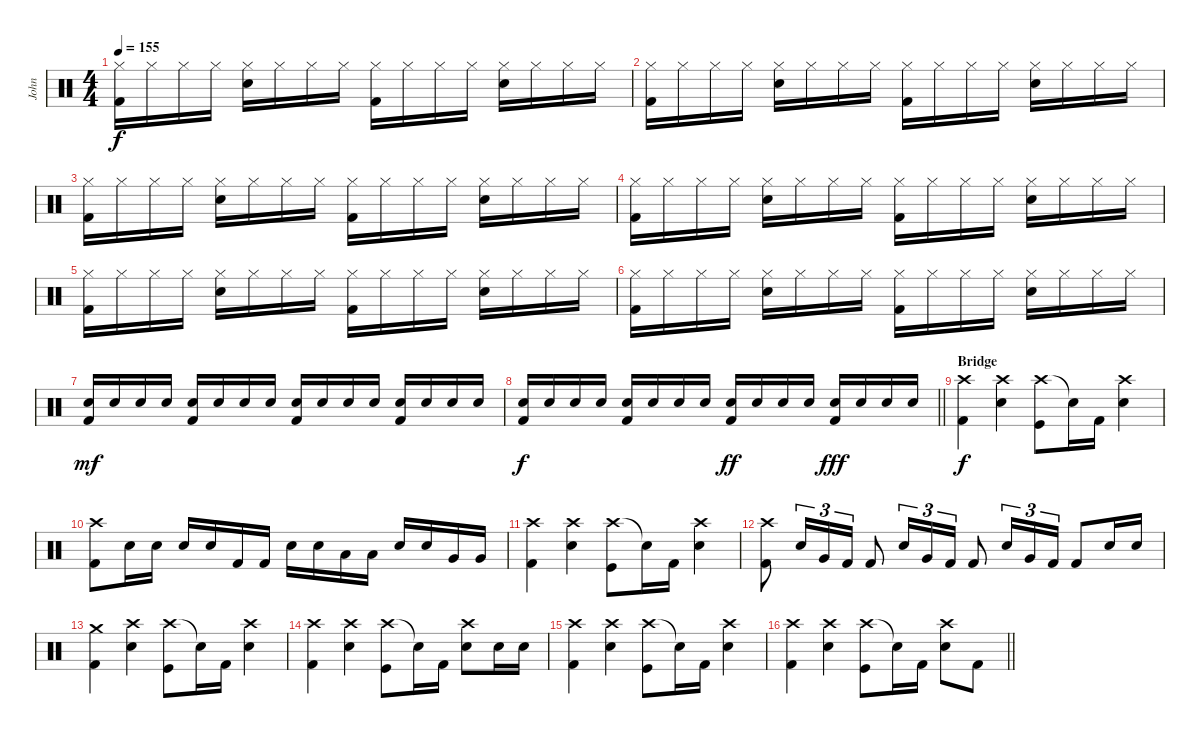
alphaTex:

\track ("John" "John") {instrument percussion}
\staff {score}
\articulation defaults
\ts (4 4)
\tempo 155
\clef neutral
\ks c
("Hi-Hat (closed)" "Kick (hit) 2").16{dy f} "Hi-Hat (closed)".16 "Hi-Hat (closed)".16 "Hi-Hat (closed)".16 ("Hi-Hat (closed)" "Snare (hit) 2").16 "Hi-Hat (closed)".16 "Hi-Hat (closed)".16 "Hi-Hat (closed)".16 ("Hi-Hat (closed)" "Kick (hit) 2").16 "Hi-Hat (closed)".16 "Hi-Hat (closed)".16 "Hi-Hat (closed)".16 ("Hi-Hat (closed)" "Snare (hit) 2").16 "Hi-Hat (closed)".16 "Hi-Hat (closed)".16 "Hi-Hat (closed)".16 |
("Hi-Hat (closed)" "Kick (hit) 2").16 "Hi-Hat (closed)".16 "Hi-Hat (closed)".16 "Hi-Hat (closed)".16 ("Hi-Hat (closed)" "Snare (hit) 2").16 "Hi-Hat (closed)".16 "Hi-Hat (closed)".16 "Hi-Hat (closed)".16 ("Hi-Hat (closed)" "Kick (hit) 2").16 "Hi-Hat (closed)".16 "Hi-Hat (closed)".16 "Hi-Hat (closed)".16 ("Hi-Hat (closed)" "Snare (hit) 2").16 "Hi-Hat (closed)".16 "Hi-Hat (closed)".16 "Hi-Hat (closed)".16 |
("Hi-Hat (closed)" "Kick (hit) 2").16 "Hi-Hat (closed)".16 "Hi-Hat (closed)".16 "Hi-Hat (closed)".16 ("Hi-Hat (closed)" "Snare (hit) 2").16 "Hi-Hat (closed)".16 "Hi-Hat (closed)".16 "Hi-Hat (closed)".16 ("Hi-Hat (closed)" "Kick (hit) 2").16 "Hi-Hat (closed)".16 "Hi-Hat (closed)".16 "Hi-Hat (closed)".16 ("Hi-Hat (closed)" "Snare (hit) 2").16 "Hi-Hat (closed)".16 "Hi-Hat (closed)".16 "Hi-Hat (closed)".16 |
("Hi-Hat (closed)" "Kick (hit) 2").16 "Hi-Hat (closed)".16 "Hi-Hat (closed)".16 "Hi-Hat (closed)".16 ("Hi-Hat (closed)" "Snare (hit) 2").16 "Hi-Hat (closed)".16 "Hi-Hat (closed)".16 "Hi-Hat (closed)".16 ("Hi-Hat (closed)" "Kick (hit) 2").16 "Hi-Hat (closed)".16 "Hi-Hat (closed)".16 "Hi-Hat (closed)".16 ("Hi-Hat (closed)" "Snare (hit) 2").16 "Hi-Hat (closed)".16 "Hi-Hat (closed)".16 "Hi-Hat (closed)".16 |
("Hi-Hat (closed)" "Kick (hit) 2").16 "Hi-Hat (closed)".16 "Hi-Hat (closed)".16 "Hi-Hat (closed)".16 ("Hi-Hat (closed)" "Snare (hit) 2").16 "Hi-Hat (closed)".16 "Hi-Hat (closed)".16 "Hi-Hat (closed)".16 ("Hi-Hat (closed)" "Kick (hit) 2").16 "Hi-Hat (closed)".16 "Hi-Hat (closed)".16 "Hi-Hat (closed)".16 ("Hi-Hat (closed)" "Snare (hit) 2").16 "Hi-Hat (closed)".16 "Hi-Hat (closed)".16 "Hi-Hat (closed)".16 |
("Hi-Hat (closed)" "Kick (hit) 2").16 "Hi-Hat (closed)".16 "Hi-Hat (closed)".16 "Hi-Hat (closed)".16 ("Hi-Hat (closed)" "Snare (hit) 2").16 "Hi-Hat (closed)".16 "Hi-Hat (closed)".16 "Hi-Hat (closed)".16 ("Hi-Hat (closed)" "Kick (hit) 2").16 "Hi-Hat (closed)".16 "Hi-Hat (closed)".16 "Hi-Hat (closed)".16 ("Hi-Hat (closed)" "Snare (hit) 2").16 "Hi-Hat (closed)".16 "Hi-Hat (closed)".16 "Hi-Hat (closed)".16 |
("Snare (hit) 2" "Kick (hit) 2").16{dy mf} "Snare (hit) 2".16 "Snare (hit) 2".16 "Snare (hit) 2".16 ("Snare (hit) 2" "Kick (hit) 2").16 "Snare (hit) 2".16 "Snare (hit) 2".16 "Snare (hit) 2".16 ("Snare (hit) 2" "Kick (hit) 2").16 "Snare (hit) 2".16 "Snare (hit) 2".16 "Snare (hit) 2".16 ("Snare (hit) 2" "Kick (hit) 2").16 "Snare (hit) 2".16 "Snare (hit) 2".16 "Snare (hit) 2".16 |
\barLineRight lightlight
("Snare (hit) 2" "Kick (hit) 2").16{dy f} "Snare (hit) 2".16 "Snare (hit) 2".16 "Snare (hit) 2".16 ("Snare (hit) 2" "Kick (hit) 2").16 "Snare (hit) 2".16 "Snare (hit) 2".16 "Snare (hit) 2".16 ("Snare (hit) 2" "Kick (hit) 2").16{dy ff} "Snare (hit) 2".16 "Snare (hit) 2".16 "Snare (hit) 2".16 ("Snare (hit) 2" "Kick (hit) 2").16{dy fff} "Snare (hit) 2".16 "Snare (hit) 2".16 "Snare (hit) 2".16 |
\section ("" "Bridge")
("Crash high (hit)" "Kick (hit) 2").4{dy f} ("Crash high (hit)" "Snare (hit) 2").4 ("Crash high (hit)" "Kick (hit)").8 "Snare (hit)"{t}.16 "Kick (hit) 2".16 ("Crash high (hit)" "Snare (hit) 2").4 |
("Crash high (hit)" "Kick (hit) 2").8 "Snare (hit) 2".16 "Snare (hit) 2".16 "Snare (hit) 2".16 "Snare (hit) 2".16 "Kick (hit) 2".16 "Kick (hit) 2".16 "Snare (hit) 2".16 "Snare (hit) 2".16 "Low Tom (hit)".16 "Low Tom (hit)".16 "Snare (hit) 2".16 "Snare (hit) 2".16 "Very Low Tom (hit)".16 "Very Low Tom (hit)".16 |
("Crash high (hit)" "Kick (hit) 2").4 ("Crash high (hit)" "Snare (hit) 2").4 ("Crash high (hit)" "Kick (hit)").8 "Snare (hit)"{t}.16 "Kick (hit) 2".16 ("Crash high (hit)" "Snare (hit) 2").4 |
("Crash high (hit)" "Kick (hit) 2").8 "Snare (hit) 2".16{tu (3 2)} "Very Low Tom (hit)".16{tu (3 2)} "Kick (hit) 2".16{tu (3 2)} "Kick (hit) 2".8 "Snare (hit) 2".16{tu (3 2)} "Very Low Tom (hit)".16{tu (3 2)} "Kick (hit) 2".16{tu (3 2)} "Kick (hit) 2".8 "Snare (hit) 2".16{tu (3 2)} "Very Low Tom (hit)".16{tu (3 2)} "Kick (hit) 2".16{tu (3 2)} "Kick (hit) 2".8 "Snare (hit) 2".16 "Snare (hit) 2".16 |
("Crash medium (hit)" "Kick (hit) 2").4 ("Crash high (hit)" "Snare (hit) 2").4 ("Crash high (hit)" "Kick (hit)").8 "Snare (hit)"{t}.16 "Kick (hit) 2".16 ("Crash high (hit)" "Snare (hit) 2").4 |
("Crash high (hit)" "Kick (hit) 2").4 ("Crash high (hit)" "Snare (hit) 2").4 ("Crash high (hit)" "Kick (hit)").8 "Snare (hit)"{t}.16 "Kick (hit) 2".16 ("Crash high (hit)" "Snare (hit) 2").8 "Snare (hit) 2".16 "Snare (hit) 2".16 |
("Crash high (hit)" "Kick (hit) 2").4 ("Crash high (hit)" "Snare (hit) 2").4 ("Crash high (hit)" "Kick (hit)").8 "Snare (hit)"{t}.16 "Kick (hit) 2".16 ("Crash high (hit)" "Snare (hit) 2").4 |
\barLineRight lightlight
("Crash high (hit)" "Kick (hit) 2").4 ("Crash high (hit)" "Snare (hit) 2").4 ("Crash high (hit)" "Kick (hit)").8 "Snare (hit)"{t}.16 "Kick (hit) 2".16 ("Crash high (hit)" "Snare (hit) 2").8 "Kick (hit) 2".8
